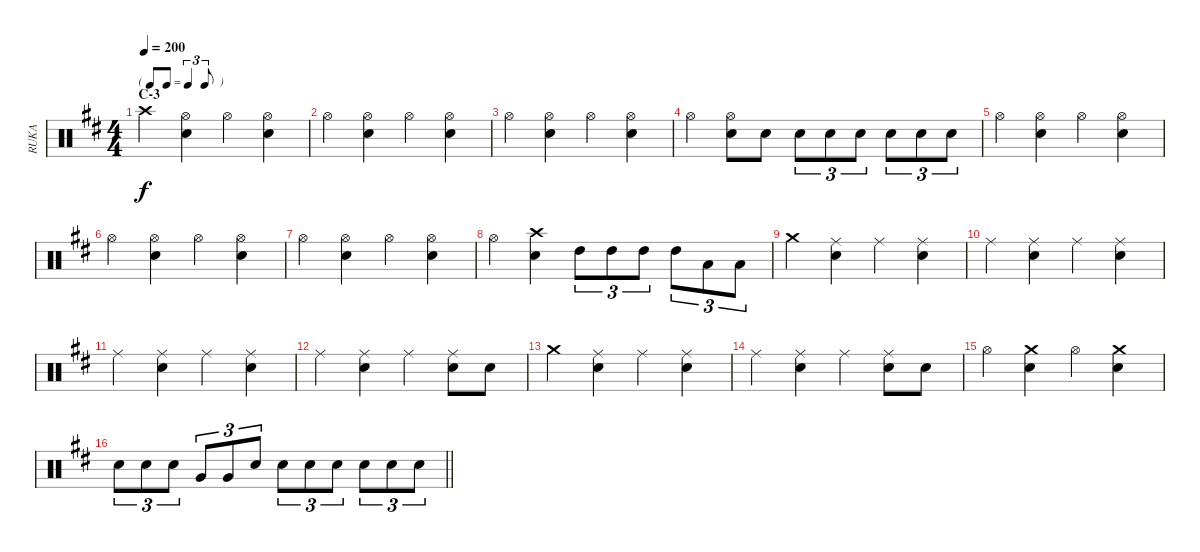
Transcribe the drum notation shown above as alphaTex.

\track ("RUKA" "RUKA") {instrument percussion}
\staff {score}
\articulation defaults
\ts (4 4)
\tf triplet8th
\section ("" "C-3")
\tempo 200
\clef neutral
\ks d "Crash high (hit)".4{dy f}
("Hi-Hat (open)" "Snare (hit) 2").4 "Hi-Hat (open)".4 ("Hi-Hat (open)" "Snare (hit) 2").4 |
"Hi-Hat (open)".4 ("Hi-Hat (open)" "Snare (hit) 2").4 "Hi-Hat (open)".4 ("Hi-Hat (open)" "Snare (hit) 2").4 |
"Hi-Hat (open)".4 ("Hi-Hat (open)" "Snare (hit) 2").4 "Hi-Hat (open)".4 ("Hi-Hat (open)" "Snare (hit) 2").4 |
"Hi-Hat (open)".4 ("Hi-Hat (open)" "Snare (hit) 2").8 "Snare (hit) 2".8 "Snare (hit) 2".8{tu (3 2)} "Snare (hit) 2".8{tu (3 2)} "Snare (hit) 2".8{tu (3 2)} "Snare (hit) 2".8{tu (3 2)} "Snare (hit) 2".8{tu (3 2)} "Snare (hit) 2".8{tu (3 2)} |
"Hi-Hat (open)".4 ("Hi-Hat (open)" "Snare (hit) 2").4 "Hi-Hat (open)".4 ("Hi-Hat (open)" "Snare (hit) 2").4 |
"Hi-Hat (open)".4 ("Hi-Hat (open)" "Snare (hit) 2").4 "Hi-Hat (open)".4 ("Hi-Hat (open)" "Snare (hit) 2").4 |
"Hi-Hat (open)".4 ("Hi-Hat (open)" "Snare (hit) 2").4 "Hi-Hat (open)".4 ("Hi-Hat (open)" "Snare (hit) 2").4 |
"Hi-Hat (open)".4 ("Crash high (hit)" "Snare (hit) 2").4 "High Tom (hit)".8{tu (3 2)} "High Tom (hit)".8{tu (3 2)} "High Tom (hit)".8{tu (3 2)} "High Tom (hit)".8{tu (3 2)} "Low Tom (hit)".8{tu (3 2)} "Low Tom (hit)".8{tu (3 2)} |
"Crash medium (hit)".4 ("Ride (middle)" "Snare (hit) 2").4 "Ride (middle)".4 ("Ride (middle)" "Snare (hit) 2").4 |
"Ride (middle)".4 ("Ride (middle)" "Snare (hit) 2").4 "Ride (middle)".4 ("Ride (middle)" "Snare (hit) 2").4 |
"Ride (middle)".4 ("Ride (middle)" "Snare (hit) 2").4 "Ride (middle)".4 ("Ride (middle)" "Snare (hit) 2").4 |
"Ride (middle)".4 ("Ride (middle)" "Snare (hit) 2").4 "Ride (middle)".4 ("Ride (middle)" "Snare (hit) 2").8 "Snare (hit) 2".8 |
"Crash medium (hit)".4 ("Ride (middle)" "Snare (hit) 2").4 "Ride (middle)".4 ("Ride (middle)" "Snare (hit) 2").4 |
"Ride (middle)".4 ("Ride (middle)" "Snare (hit) 2").4 "Ride (middle)".4 ("Ride (middle)" "Snare (hit) 2").8 "Snare (hit) 2".8 |
"Hi-Hat (open)".4 ("Crash medium (hit)" "Snare (hit) 2").4 "Hi-Hat (open)".4 ("Crash medium (hit)" "Snare (hit) 2").4 |
\barLineRight lightlight "Snare (hit) 2".8{tu (3 2)} "Snare (hit) 2".8{tu (3 2)} "Snare (hit) 2".8{tu (3 2)} "Very Low Tom (hit)".8{tu (3 2)} "Very Low Tom (hit)".8{tu (3 2)} "Snare (hit) 2".8{tu (3 2)} "Snare (hit) 2".8{tu (3 2)} "Snare (hit) 2".8{tu (3 2)} "Snare (hit) 2".8{tu (3 2)} "Snare (hit) 2".8{tu (3 2)} "Snare (hit) 2".8{tu (3 2)} "Snare (hit) 2".8{tu (3 2)}
